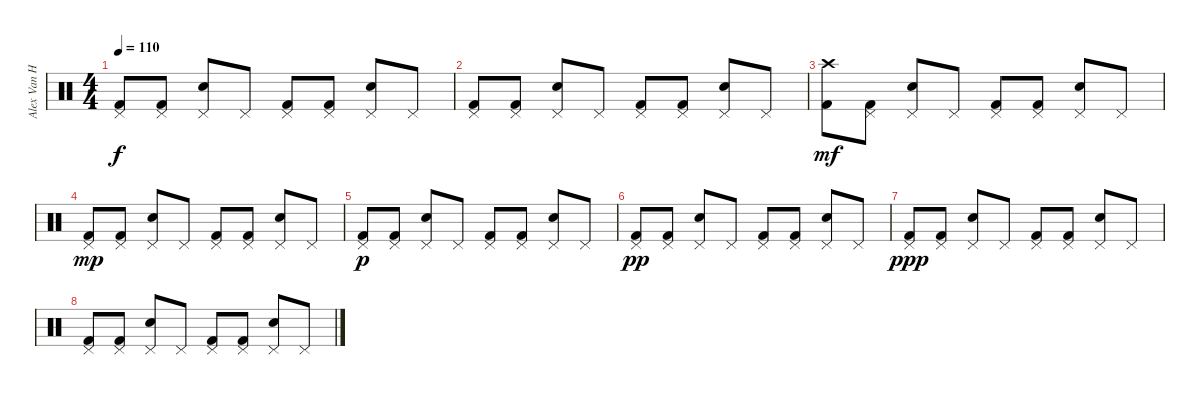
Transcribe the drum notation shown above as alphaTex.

\track ("Alex Van Halen" "Alex Van H") {instrument percussion}
\staff {score}
\articulation defaults
\ts (4 4)
\tempo 110
\clef neutral
\ks c
("Pedal Hi-Hat (hit)" "Kick (hit) 2").8{dy f} ("Pedal Hi-Hat (hit)" "Kick (hit) 2").8 ("Pedal Hi-Hat (hit)" "Snare (hit) 2").8 "Pedal Hi-Hat (hit)".8 ("Pedal Hi-Hat (hit)" "Kick (hit) 2").8 ("Pedal Hi-Hat (hit)" "Kick (hit) 2").8 ("Pedal Hi-Hat (hit)" "Snare (hit) 2").8 "Pedal Hi-Hat (hit)".8 |
("Pedal Hi-Hat (hit)" "Kick (hit) 2").8 ("Pedal Hi-Hat (hit)" "Kick (hit) 2").8 ("Pedal Hi-Hat (hit)" "Snare (hit) 2").8 "Pedal Hi-Hat (hit)".8 ("Pedal Hi-Hat (hit)" "Kick (hit) 2").8 ("Pedal Hi-Hat (hit)" "Kick (hit) 2").8 ("Pedal Hi-Hat (hit)" "Snare (hit) 2").8 "Pedal Hi-Hat (hit)".8 |
("Crash high (hit)" "Kick (hit) 2").8{dy mf} ("Pedal Hi-Hat (hit)" "Kick (hit) 2").8 ("Pedal Hi-Hat (hit)" "Snare (hit) 2").8 "Pedal Hi-Hat (hit)".8 ("Pedal Hi-Hat (hit)" "Kick (hit) 2").8 ("Pedal Hi-Hat (hit)" "Kick (hit) 2").8 ("Pedal Hi-Hat (hit)" "Snare (hit) 2").8 "Pedal Hi-Hat (hit)".8 |
("Pedal Hi-Hat (hit)" "Kick (hit) 2").8{dy mp} ("Pedal Hi-Hat (hit)" "Kick (hit) 2").8 ("Pedal Hi-Hat (hit)" "Snare (hit) 2").8 "Pedal Hi-Hat (hit)".8 ("Pedal Hi-Hat (hit)" "Kick (hit) 2").8 ("Pedal Hi-Hat (hit)" "Kick (hit) 2").8 ("Pedal Hi-Hat (hit)" "Snare (hit) 2").8 "Pedal Hi-Hat (hit)".8 |
("Pedal Hi-Hat (hit)" "Kick (hit) 2").8{dy p} ("Pedal Hi-Hat (hit)" "Kick (hit) 2").8 ("Pedal Hi-Hat (hit)" "Snare (hit) 2").8 "Pedal Hi-Hat (hit)".8 ("Pedal Hi-Hat (hit)" "Kick (hit) 2").8 ("Pedal Hi-Hat (hit)" "Kick (hit) 2").8 ("Pedal Hi-Hat (hit)" "Snare (hit) 2").8 "Pedal Hi-Hat (hit)".8 |
("Pedal Hi-Hat (hit)" "Kick (hit) 2").8{dy pp} ("Pedal Hi-Hat (hit)" "Kick (hit) 2").8 ("Pedal Hi-Hat (hit)" "Snare (hit) 2").8 "Pedal Hi-Hat (hit)".8 ("Pedal Hi-Hat (hit)" "Kick (hit) 2").8 ("Pedal Hi-Hat (hit)" "Kick (hit) 2").8 ("Pedal Hi-Hat (hit)" "Snare (hit) 2").8 "Pedal Hi-Hat (hit)".8 |
("Pedal Hi-Hat (hit)" "Kick (hit) 2").8{dy ppp} ("Pedal Hi-Hat (hit)" "Kick (hit) 2").8 ("Pedal Hi-Hat (hit)" "Snare (hit) 2").8 "Pedal Hi-Hat (hit)".8 ("Pedal Hi-Hat (hit)" "Kick (hit) 2").8 ("Pedal Hi-Hat (hit)" "Kick (hit) 2").8 ("Pedal Hi-Hat (hit)" "Snare (hit) 2").8 "Pedal Hi-Hat (hit)".8 |
("Pedal Hi-Hat (hit)" "Kick (hit) 2").8 ("Pedal Hi-Hat (hit)" "Kick (hit) 2").8 ("Pedal Hi-Hat (hit)" "Snare (hit) 2").8 "Pedal Hi-Hat (hit)".8 ("Pedal Hi-Hat (hit)" "Kick (hit) 2").8 ("Pedal Hi-Hat (hit)" "Kick (hit) 2").8 ("Pedal Hi-Hat (hit)" "Snare (hit) 2").8 "Pedal Hi-Hat (hit)".8
